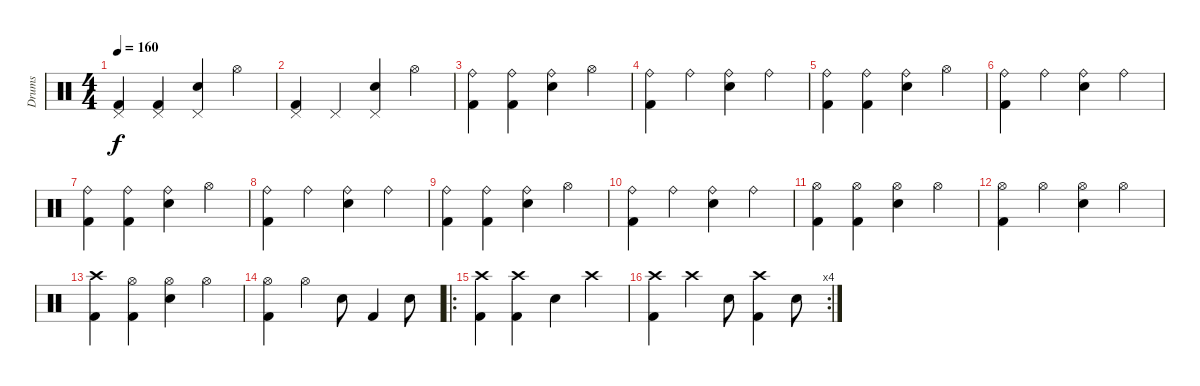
\track ("Drums" "Drums") {instrument percussion}
\staff {score}
\articulation defaults
\ts (4 4)
\tempo 160
\clef neutral
\ks c
("Pedal Hi-Hat (hit)" "Kick (hit) 2").4{dy f} ("Pedal Hi-Hat (hit)" "Kick (hit) 2").4 ("Pedal Hi-Hat (hit)" "Electric Snare (hit)").4 "Hi-Hat (open)".4 |
("Pedal Hi-Hat (hit)" "Kick (hit) 2").4 "Pedal Hi-Hat (hit)".4 ("Pedal Hi-Hat (hit)" "Electric Snare (hit)").4 "Hi-Hat (open)".4 |
("Ride (bell)" "Kick (hit) 2").4 ("Ride (bell)" "Kick (hit) 2").4 ("Ride (bell)" "Electric Snare (hit)").4 "Hi-Hat (open)".4 |
("Ride (bell)" "Kick (hit) 2").4 "Ride (bell)".4 ("Ride (bell)" "Electric Snare (hit)").4 "Ride (bell)".4 |
("Ride (bell)" "Kick (hit) 2").4 ("Ride (bell)" "Kick (hit) 2").4 ("Ride (bell)" "Electric Snare (hit)").4 "Hi-Hat (open)".4 |
("Ride (bell)" "Kick (hit) 2").4 "Ride (bell)".4 ("Ride (bell)" "Electric Snare (hit)").4 "Ride (bell)".4 |
("Ride (bell)" "Kick (hit) 2").4 ("Ride (bell)" "Kick (hit) 2").4 ("Ride (bell)" "Electric Snare (hit)").4 "Hi-Hat (open)".4 |
("Ride (bell)" "Kick (hit) 2").4 "Ride (bell)".4 ("Ride (bell)" "Electric Snare (hit)").4 "Ride (bell)".4 |
("Ride (bell)" "Kick (hit) 2").4 ("Ride (bell)" "Kick (hit) 2").4 ("Ride (bell)" "Electric Snare (hit)").4 "Hi-Hat (open)".4 |
("Ride (bell)" "Kick (hit) 2").4 "Ride (bell)".4 ("Ride (bell)" "Electric Snare (hit)").4 "Ride (bell)".4 |
("Hi-Hat (open)" "Kick (hit) 2").4 ("Hi-Hat (open)" "Kick (hit) 2").4 ("Hi-Hat (open)" "Electric Snare (hit)").4 "Hi-Hat (open)".4 |
("Hi-Hat (open)" "Kick (hit) 2").4 "Hi-Hat (open)".4 ("Hi-Hat (open)" "Electric Snare (hit)").4 "Hi-Hat (open)".4 |
("Crash high (hit)" "Kick (hit) 2").4 ("Hi-Hat (open)" "Kick (hit) 2").4 ("Hi-Hat (open)" "Electric Snare (hit)").4 "Hi-Hat (open)".4 |
("Hi-Hat (open)" "Kick (hit) 2").4 "Hi-Hat (open)".4 "Electric Snare (hit)".8 "Kick (hit) 2".4 "Electric Snare (hit)".8 |
\ro
("Crash high (hit)" "Kick (hit) 2").4 ("Crash high (hit)" "Kick (hit) 2").4 "Electric Snare (hit)".4 "Crash high (hit)".4 |
\rc 4
("Crash high (hit)" "Kick (hit) 2").4 "Crash high (hit)".4 "Electric Snare (hit)".8 ("Crash high (hit)" "Kick (hit) 2").4 "Electric Snare (hit)".8
